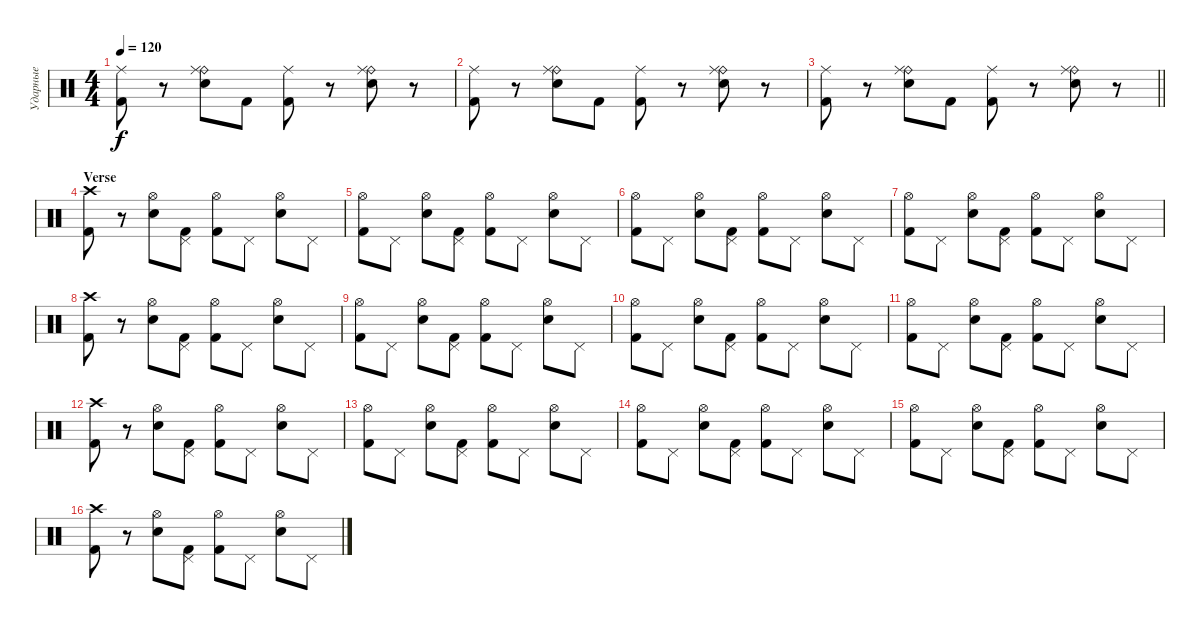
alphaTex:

\track ("Ударные" "Ударные") {instrument percussion}
\staff {score}
\articulation defaults
\ts (4 4)
\tempo 120
\clef neutral
\ks c
("Ride (middle)" "Kick (hit) 2").8{dy f} r.8 ("Ride (bell)" "Ride (middle)" "Electric Snare (hit)").8 "Kick (hit) 2".8 ("Ride (middle)" "Kick (hit) 2").8 r.8 ("Ride (bell)" "Ride (middle)" "Electric Snare (hit)").8 r.8 |
("Ride (middle)" "Kick (hit) 2").8 r.8 ("Ride (bell)" "Ride (middle)" "Electric Snare (hit)").8 "Kick (hit) 2".8 ("Ride (middle)" "Kick (hit) 2").8 r.8 ("Ride (bell)" "Ride (middle)" "Electric Snare (hit)").8 r.8 |
\barLineRight lightlight
("Ride (middle)" "Kick (hit) 2").8 r.8 ("Ride (bell)" "Ride (middle)" "Electric Snare (hit)").8 "Kick (hit) 2".8 ("Ride (middle)" "Kick (hit) 2").8 r.8 ("Ride (bell)" "Ride (middle)" "Electric Snare (hit)").8 r.8 |
\section ("" "Verse")
("Crash high (hit)" "Kick (hit) 2").8 r.8 ("Hi-Hat (open)" "Electric Snare (hit)").8 ("Pedal Hi-Hat (hit)" "Kick (hit) 2").8 ("Hi-Hat (open)" "Kick (hit) 2").8 "Pedal Hi-Hat (hit)".8 ("Hi-Hat (open)" "Electric Snare (hit)").8 "Pedal Hi-Hat (hit)".8 |
("Hi-Hat (open)" "Kick (hit) 2").8 "Pedal Hi-Hat (hit)".8 ("Hi-Hat (open)" "Electric Snare (hit)").8 ("Pedal Hi-Hat (hit)" "Kick (hit) 2").8 ("Hi-Hat (open)" "Kick (hit) 2").8 "Pedal Hi-Hat (hit)".8 ("Hi-Hat (open)" "Electric Snare (hit)").8 "Pedal Hi-Hat (hit)".8 |
("Hi-Hat (open)" "Kick (hit) 2").8 "Pedal Hi-Hat (hit)".8 ("Hi-Hat (open)" "Electric Snare (hit)").8 ("Pedal Hi-Hat (hit)" "Kick (hit) 2").8 ("Hi-Hat (open)" "Kick (hit) 2").8 "Pedal Hi-Hat (hit)".8 ("Hi-Hat (open)" "Electric Snare (hit)").8 "Pedal Hi-Hat (hit)".8 |
("Hi-Hat (open)" "Kick (hit) 2").8 "Pedal Hi-Hat (hit)".8 ("Hi-Hat (open)" "Electric Snare (hit)").8 ("Pedal Hi-Hat (hit)" "Kick (hit) 2").8 ("Hi-Hat (open)" "Kick (hit) 2").8 "Pedal Hi-Hat (hit)".8 ("Hi-Hat (open)" "Electric Snare (hit)").8 "Pedal Hi-Hat (hit)".8 |
("Crash high (hit)" "Kick (hit) 2").8 r.8 ("Hi-Hat (open)" "Electric Snare (hit)").8 ("Pedal Hi-Hat (hit)" "Kick (hit) 2").8 ("Hi-Hat (open)" "Kick (hit) 2").8 "Pedal Hi-Hat (hit)".8 ("Hi-Hat (open)" "Electric Snare (hit)").8 "Pedal Hi-Hat (hit)".8 |
("Hi-Hat (open)" "Kick (hit) 2").8 "Pedal Hi-Hat (hit)".8 ("Hi-Hat (open)" "Electric Snare (hit)").8 ("Pedal Hi-Hat (hit)" "Kick (hit) 2").8 ("Hi-Hat (open)" "Kick (hit) 2").8 "Pedal Hi-Hat (hit)".8 ("Hi-Hat (open)" "Electric Snare (hit)").8 "Pedal Hi-Hat (hit)".8 |
("Hi-Hat (open)" "Kick (hit) 2").8 "Pedal Hi-Hat (hit)".8 ("Hi-Hat (open)" "Electric Snare (hit)").8 ("Pedal Hi-Hat (hit)" "Kick (hit) 2").8 ("Hi-Hat (open)" "Kick (hit) 2").8 "Pedal Hi-Hat (hit)".8 ("Hi-Hat (open)" "Electric Snare (hit)").8 "Pedal Hi-Hat (hit)".8 |
("Hi-Hat (open)" "Kick (hit) 2").8 "Pedal Hi-Hat (hit)".8 ("Hi-Hat (open)" "Electric Snare (hit)").8 ("Pedal Hi-Hat (hit)" "Kick (hit) 2").8 ("Hi-Hat (open)" "Kick (hit) 2").8 "Pedal Hi-Hat (hit)".8 ("Hi-Hat (open)" "Electric Snare (hit)").8 "Pedal Hi-Hat (hit)".8 |
("Crash high (hit)" "Kick (hit) 2").8 r.8 ("Hi-Hat (open)" "Electric Snare (hit)").8 ("Pedal Hi-Hat (hit)" "Kick (hit) 2").8 ("Hi-Hat (open)" "Kick (hit) 2").8 "Pedal Hi-Hat (hit)".8 ("Hi-Hat (open)" "Electric Snare (hit)").8 "Pedal Hi-Hat (hit)".8 |
("Hi-Hat (open)" "Kick (hit) 2").8 "Pedal Hi-Hat (hit)".8 ("Hi-Hat (open)" "Electric Snare (hit)").8 ("Pedal Hi-Hat (hit)" "Kick (hit) 2").8 ("Hi-Hat (open)" "Kick (hit) 2").8 "Pedal Hi-Hat (hit)".8 ("Hi-Hat (open)" "Electric Snare (hit)").8 "Pedal Hi-Hat (hit)".8 |
("Hi-Hat (open)" "Kick (hit) 2").8 "Pedal Hi-Hat (hit)".8 ("Hi-Hat (open)" "Electric Snare (hit)").8 ("Pedal Hi-Hat (hit)" "Kick (hit) 2").8 ("Hi-Hat (open)" "Kick (hit) 2").8 "Pedal Hi-Hat (hit)".8 ("Hi-Hat (open)" "Electric Snare (hit)").8 "Pedal Hi-Hat (hit)".8 |
("Hi-Hat (open)" "Kick (hit) 2").8 "Pedal Hi-Hat (hit)".8 ("Hi-Hat (open)" "Electric Snare (hit)").8 ("Pedal Hi-Hat (hit)" "Kick (hit) 2").8 ("Hi-Hat (open)" "Kick (hit) 2").8 "Pedal Hi-Hat (hit)".8 ("Hi-Hat (open)" "Electric Snare (hit)").8 "Pedal Hi-Hat (hit)".8 |
("Crash high (hit)" "Kick (hit) 2").8 r.8 ("Hi-Hat (open)" "Electric Snare (hit)").8 ("Pedal Hi-Hat (hit)" "Kick (hit) 2").8 ("Hi-Hat (open)" "Kick (hit) 2").8 "Pedal Hi-Hat (hit)".8 ("Hi-Hat (open)" "Electric Snare (hit)").8 "Pedal Hi-Hat (hit)".8
